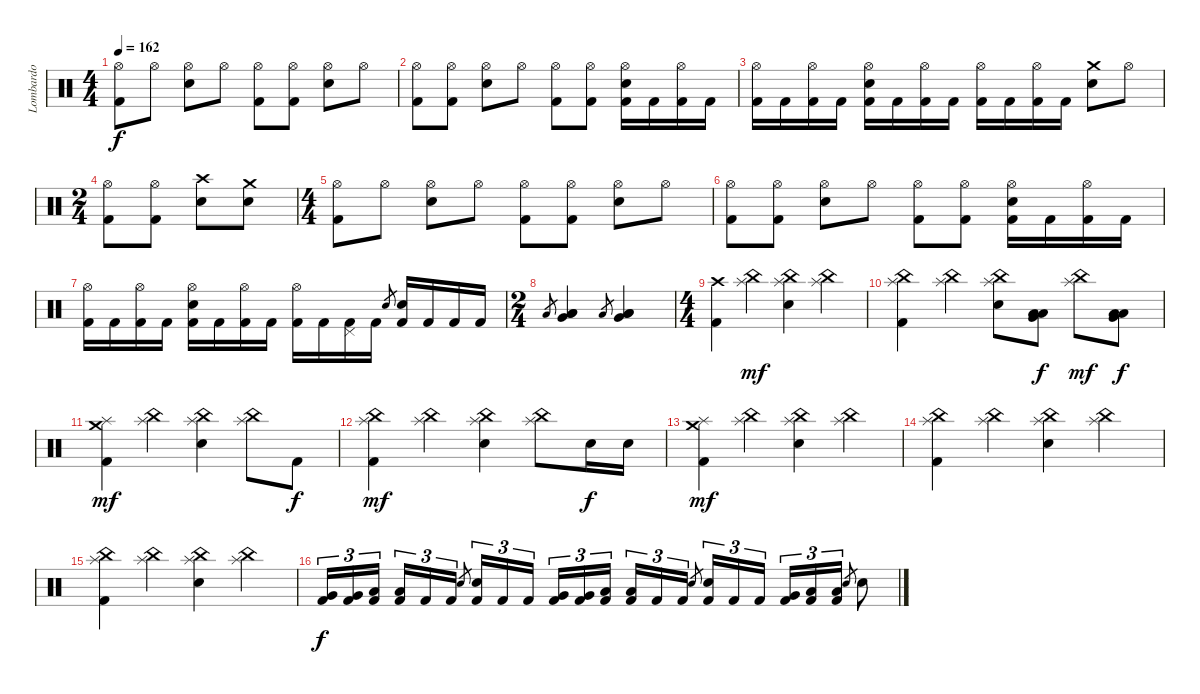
\track ("Lombardo" "Lombardo") {instrument percussion}
\staff {score}
\articulation defaults
\ts (4 4)
\tempo 162
\clef neutral
\ks c
("Hi-Hat (open)" "Kick (hit) 2").8{dy f} "Hi-Hat (open)".8 ("Electric Snare (hit)" "Hi-Hat (open)").8 "Hi-Hat (open)".8 ("Kick (hit) 2" "Hi-Hat (open)").8 ("Kick (hit) 2" "Hi-Hat (open)").8 ("Electric Snare (hit)" "Hi-Hat (open)").8 "Hi-Hat (open)".8 |
("Kick (hit) 2" "Hi-Hat (open)").8 ("Kick (hit) 2" "Hi-Hat (open)").8 ("Electric Snare (hit)" "Hi-Hat (open)").8 "Hi-Hat (open)".8 ("Kick (hit) 2" "Hi-Hat (open)").8 ("Kick (hit) 2" "Hi-Hat (open)").8 ("Kick (hit) 2" "Electric Snare (hit)" "Hi-Hat (open)").16 "Kick (hit) 2".16 ("Kick (hit) 2" "Hi-Hat (open)").16 "Kick (hit) 2".16 |
("Kick (hit) 2" "Hi-Hat (open)").16 "Kick (hit) 2".16 ("Kick (hit) 2" "Hi-Hat (open)").16 "Kick (hit) 2".16 ("Kick (hit) 2" "Electric Snare (hit)" "Hi-Hat (open)").16 "Kick (hit) 2".16 ("Kick (hit) 2" "Hi-Hat (open)").16 "Kick (hit) 2".16 ("Kick (hit) 2" "Hi-Hat (open)").16 "Kick (hit) 2".16 ("Kick (hit) 2" "Hi-Hat (open)").16 "Kick (hit) 2".16 ("Electric Snare (hit)" "Crash medium (hit)").8 "Hi-Hat (open)".8 |
\ts (2 4)
("Kick (hit) 2" "Hi-Hat (open)").8 ("Kick (hit) 2" "Hi-Hat (open)").8 ("Electric Snare (hit)" "Crash high (hit)").8 ("Electric Snare (hit)" "Crash medium (hit)").8 |
\ts (4 4)
("Hi-Hat (open)" "Kick (hit) 2").8 "Hi-Hat (open)".8 ("Electric Snare (hit)" "Hi-Hat (open)").8 "Hi-Hat (open)".8 ("Kick (hit) 2" "Hi-Hat (open)").8 ("Kick (hit) 2" "Hi-Hat (open)").8 ("Electric Snare (hit)" "Hi-Hat (open)").8 "Hi-Hat (open)".8 |
("Kick (hit) 2" "Hi-Hat (open)").8 ("Kick (hit) 2" "Hi-Hat (open)").8 ("Electric Snare (hit)" "Hi-Hat (open)").8 "Hi-Hat (open)".8 ("Kick (hit) 2" "Hi-Hat (open)").8 ("Kick (hit) 2" "Hi-Hat (open)").8 ("Kick (hit) 2" "Electric Snare (hit)" "Hi-Hat (open)").16 "Kick (hit) 2".16 ("Kick (hit) 2" "Hi-Hat (open)").16 "Kick (hit) 2".16 |
("Kick (hit) 2" "Hi-Hat (open)").16 "Kick (hit) 2".16 ("Kick (hit) 2" "Hi-Hat (open)").16 "Kick (hit) 2".16 ("Kick (hit) 2" "Electric Snare (hit)" "Hi-Hat (open)").16 "Kick (hit) 2".16 ("Kick (hit) 2" "Hi-Hat (open)").16 "Kick (hit) 2".16 ("Kick (hit) 2" "Hi-Hat (open)").16 "Kick (hit) 2".16 ("Kick (hit) 2" "Pedal Hi-Hat (hit)").16 "Kick (hit) 2".16 "Electric Snare (hit)".8{gr} ("Kick (hit) 2" "Electric Snare (hit)").16 "Kick (hit) 2".16 "Kick (hit) 2".16 "Kick (hit) 2".16 |
\ts (2 4)
"Low Floor Tom (hit)".8{gr} ("Low Floor Tom (hit)" "Very Low Tom (hit)" "Low Tom (hit)").4 "Low Floor Tom (hit)".8{gr} ("Low Floor Tom (hit)" "Very Low Tom (hit)" "Low Tom (hit)").4 |
\ts (4 4)
("Crash high (hit)" "Kick (hit) 2").4 ("China (hit)" "Splash (hit)").4{dy mf} ("China (hit)" "Splash (hit)" "Electric Snare (hit)").4 ("China (hit)" "Splash (hit)").4 |
("China (hit)" "Splash (hit)" "Kick (hit) 2").4 ("China (hit)" "Splash (hit)").4 ("China (hit)" "Splash (hit)" "Electric Snare (hit)").8 ("Low Floor Tom (hit)" "Very Low Tom (hit)" "Low Tom (hit)").8{dy f} ("China (hit)" "Splash (hit)").8{dy mf} ("Low Tom (hit)" "Low Floor Tom (hit)" "Very Low Tom (hit)").8{dy f} |
("Crash medium (hit)" "Splash (hit)" "Kick (hit) 2").4{dy mf} ("China (hit)" "Splash (hit)").4 ("China (hit)" "Splash (hit)" "Electric Snare (hit)").4 ("China (hit)" "Splash (hit)").8 "Kick (hit) 2".8{dy f} |
("China (hit)" "Splash (hit)" "Kick (hit) 2").4{dy mf} ("China (hit)" "Splash (hit)").4 ("China (hit)" "Splash (hit)" "Electric Snare (hit)").4 ("China (hit)" "Splash (hit)").8 "Electric Snare (hit)".16{dy f} "Electric Snare (hit)".16 |
("Crash medium (hit)" "Splash (hit)" "Kick (hit) 2").4{dy mf} ("China (hit)" "Splash (hit)").4 ("China (hit)" "Splash (hit)" "Electric Snare (hit)").4 ("China (hit)" "Splash (hit)").4 |
("China (hit)" "Splash (hit)" "Kick (hit) 2").4 ("China (hit)" "Splash (hit)").4 ("China (hit)" "Splash (hit)" "Electric Snare (hit)").4 ("China (hit)" "Splash (hit)").4 |
("China (hit)" "Splash (hit)" "Kick (hit) 2").4 ("China (hit)" "Splash (hit)").4 ("China (hit)" "Splash (hit)" "Electric Snare (hit)").4 ("China (hit)" "Splash (hit)").4 |
("Very Low Tom (hit)" "Kick (hit) 2").16{tu (3 2) dy f} ("Very Low Tom (hit)" "Kick (hit) 2").16{tu (3 2)} ("Low Floor Tom (hit)" "Kick (hit) 2").16{tu (3 2)} ("Low Floor Tom (hit)" "Kick (hit) 2").16{tu (3 2)} "Kick (hit) 2".16{tu (3 2)} "Kick (hit) 2".16{tu (3 2)} "Electric Snare (hit)".8{gr} ("Electric Snare (hit)" "Kick (hit) 2").16{tu (3 2)} "Kick (hit) 2".16{tu (3 2)} "Kick (hit) 2".16{tu (3 2)} ("Very Low Tom (hit)" "Kick (hit) 2").16{tu (3 2)} ("Very Low Tom (hit)" "Kick (hit) 2").16{tu (3 2)} ("Low Floor Tom (hit)" "Kick (hit) 2").16{tu (3 2)} ("Low Floor Tom (hit)" "Kick (hit) 2").16{tu (3 2)} "Kick (hit) 2".16{tu (3 2)} "Kick (hit) 2".16{tu (3 2)} "Electric Snare (hit)".8{gr} ("Electric Snare (hit)" "Kick (hit) 2").16{tu (3 2)} "Kick (hit) 2".16{tu (3 2)} "Kick (hit) 2".16{tu (3 2)} ("Very Low Tom (hit)" "Kick (hit) 2").16{tu (3 2)} ("Low Floor Tom (hit)" "Kick (hit) 2").16{tu (3 2)} ("Low Floor Tom (hit)" "Kick (hit) 2").16{tu (3 2)} "Electric Snare (hit)".8{gr} "Electric Snare (hit)".8
